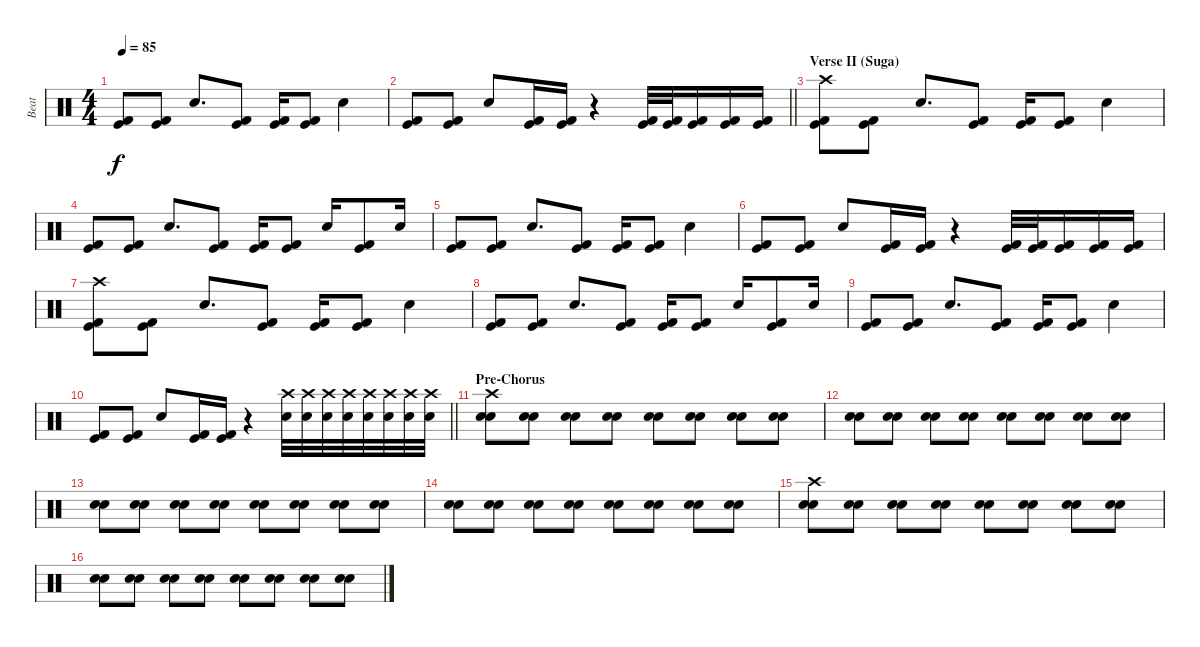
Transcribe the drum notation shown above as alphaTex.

\track ("Beat" "Beat") {instrument percussion}
\staff {score}
\articulation defaults
\ts (4 4)
\tempo 85
\clef neutral
\ks c
("Kick (hit)" "Kick (hit) 2").8{dy f} ("Kick (hit)" "Kick (hit) 2").8 "Snare (hit) 2".8{d} ("Kick (hit)" "Kick (hit) 2").8 ("Kick (hit)" "Kick (hit) 2").16 ("Kick (hit)" "Kick (hit) 2").8 "Snare (hit) 2".4 |
\barLineRight lightlight
("Kick (hit)" "Kick (hit) 2").8 ("Kick (hit)" "Kick (hit) 2").8 "Snare (hit) 2".8 ("Kick (hit)" "Kick (hit) 2").16 ("Kick (hit)" "Kick (hit) 2").16 r.4 ("Kick (hit)" "Kick (hit) 2").32 ("Kick (hit)" "Kick (hit) 2").32 ("Kick (hit)" "Kick (hit) 2").16 ("Kick (hit)" "Kick (hit) 2").16 ("Kick (hit)" "Kick (hit) 2").16 |
\section ("" "Verse II (Suga)")
("Crash high (hit)" "Kick (hit)" "Kick (hit) 2").8 ("Kick (hit)" "Kick (hit) 2").8 "Snare (hit) 2".8{d} ("Kick (hit)" "Kick (hit) 2").8 ("Kick (hit)" "Kick (hit) 2").16 ("Kick (hit)" "Kick (hit) 2").8 "Snare (hit) 2".4 |
("Kick (hit)" "Kick (hit) 2").8 ("Kick (hit)" "Kick (hit) 2").8 "Snare (hit) 2".8{d} ("Kick (hit)" "Kick (hit) 2").8 ("Kick (hit)" "Kick (hit) 2").16 ("Kick (hit)" "Kick (hit) 2").8 "Snare (hit) 2".16 ("Kick (hit)" "Kick (hit) 2").8 "Snare (hit) 2".16 |
("Kick (hit)" "Kick (hit) 2").8 ("Kick (hit)" "Kick (hit) 2").8 "Snare (hit) 2".8{d} ("Kick (hit)" "Kick (hit) 2").8 ("Kick (hit)" "Kick (hit) 2").16 ("Kick (hit)" "Kick (hit) 2").8 "Snare (hit) 2".4 |
("Kick (hit)" "Kick (hit) 2").8 ("Kick (hit)" "Kick (hit) 2").8 "Snare (hit) 2".8 ("Kick (hit)" "Kick (hit) 2").16 ("Kick (hit)" "Kick (hit) 2").16 r.4 ("Kick (hit)" "Kick (hit) 2").32 ("Kick (hit)" "Kick (hit) 2").32 ("Kick (hit)" "Kick (hit) 2").16 ("Kick (hit)" "Kick (hit) 2").16 ("Kick (hit)" "Kick (hit) 2").16 |
("Crash high (hit)" "Kick (hit)" "Kick (hit) 2").8 ("Kick (hit)" "Kick (hit) 2").8 "Snare (hit) 2".8{d} ("Kick (hit)" "Kick (hit) 2").8 ("Kick (hit)" "Kick (hit) 2").16 ("Kick (hit)" "Kick (hit) 2").8 "Snare (hit) 2".4 |
("Kick (hit)" "Kick (hit) 2").8 ("Kick (hit)" "Kick (hit) 2").8 "Snare (hit) 2".8{d} ("Kick (hit)" "Kick (hit) 2").8 ("Kick (hit)" "Kick (hit) 2").16 ("Kick (hit)" "Kick (hit) 2").8 "Snare (hit) 2".16 ("Kick (hit)" "Kick (hit) 2").8 "Snare (hit) 2".16 |
("Kick (hit)" "Kick (hit) 2").8 ("Kick (hit)" "Kick (hit) 2").8 "Snare (hit) 2".8{d} ("Kick (hit)" "Kick (hit) 2").8 ("Kick (hit)" "Kick (hit) 2").16 ("Kick (hit)" "Kick (hit) 2").8 "Snare (hit) 2".4 |
\barLineRight lightlight
("Kick (hit)" "Kick (hit) 2").8 ("Kick (hit)" "Kick (hit) 2").8 "Snare (hit) 2".8 ("Kick (hit)" "Kick (hit) 2").16 ("Kick (hit)" "Kick (hit) 2").16 r.4 ("Crash high (hit)" "Snare (hit) 2").32 ("Crash high (hit)" "Snare (hit) 2").32 ("Crash high (hit)" "Snare (hit) 2").32 ("Crash high (hit)" "Snare (hit) 2").32 ("Crash high (hit)" "Snare (hit) 2").32 ("Crash high (hit)" "Snare (hit) 2").32 ("Crash high (hit)" "Snare (hit) 2").32 ("Crash high (hit)" "Snare (hit) 2").32 |
\section ("" "Pre-Chorus")
("Crash high (hit)" "Hand Clap (hit)" "Hand Clap (hit)").8 ("Hand Clap (hit)" "Hand Clap (hit)").8 ("Hand Clap (hit)" "Hand Clap (hit)").8 ("Hand Clap (hit)" "Hand Clap (hit)").8 ("Hand Clap (hit)" "Hand Clap (hit)").8 ("Hand Clap (hit)" "Hand Clap (hit)").8 ("Hand Clap (hit)" "Hand Clap (hit)").8 ("Hand Clap (hit)" "Hand Clap (hit)").8 |
("Hand Clap (hit)" "Hand Clap (hit)").8 ("Hand Clap (hit)" "Hand Clap (hit)").8 ("Hand Clap (hit)" "Hand Clap (hit)").8 ("Hand Clap (hit)" "Hand Clap (hit)").8 ("Hand Clap (hit)" "Hand Clap (hit)").8 ("Hand Clap (hit)" "Hand Clap (hit)").8 ("Hand Clap (hit)" "Hand Clap (hit)").8 ("Hand Clap (hit)" "Hand Clap (hit)").8 |
("Hand Clap (hit)" "Hand Clap (hit)").8 ("Hand Clap (hit)" "Hand Clap (hit)").8 ("Hand Clap (hit)" "Hand Clap (hit)").8 ("Hand Clap (hit)" "Hand Clap (hit)").8 ("Hand Clap (hit)" "Hand Clap (hit)").8 ("Hand Clap (hit)" "Hand Clap (hit)").8 ("Hand Clap (hit)" "Hand Clap (hit)").8 ("Hand Clap (hit)" "Hand Clap (hit)").8 |
("Hand Clap (hit)" "Hand Clap (hit)").8 ("Hand Clap (hit)" "Hand Clap (hit)").8 ("Hand Clap (hit)" "Hand Clap (hit)").8 ("Hand Clap (hit)" "Hand Clap (hit)").8 ("Hand Clap (hit)" "Hand Clap (hit)").8 ("Hand Clap (hit)" "Hand Clap (hit)").8 ("Hand Clap (hit)" "Hand Clap (hit)").8 ("Hand Clap (hit)" "Hand Clap (hit)").8 |
("Crash high (hit)" "Hand Clap (hit)" "Hand Clap (hit)").8 ("Hand Clap (hit)" "Hand Clap (hit)").8 ("Hand Clap (hit)" "Hand Clap (hit)").8 ("Hand Clap (hit)" "Hand Clap (hit)").8 ("Hand Clap (hit)" "Hand Clap (hit)").8 ("Hand Clap (hit)" "Hand Clap (hit)").8 ("Hand Clap (hit)" "Hand Clap (hit)").8 ("Hand Clap (hit)" "Hand Clap (hit)").8 |
("Hand Clap (hit)" "Hand Clap (hit)").8 ("Hand Clap (hit)" "Hand Clap (hit)").8 ("Hand Clap (hit)" "Hand Clap (hit)").8 ("Hand Clap (hit)" "Hand Clap (hit)").8 ("Hand Clap (hit)" "Hand Clap (hit)").8 ("Hand Clap (hit)" "Hand Clap (hit)").8 ("Hand Clap (hit)" "Hand Clap (hit)").8 ("Hand Clap (hit)" "Hand Clap (hit)").8
